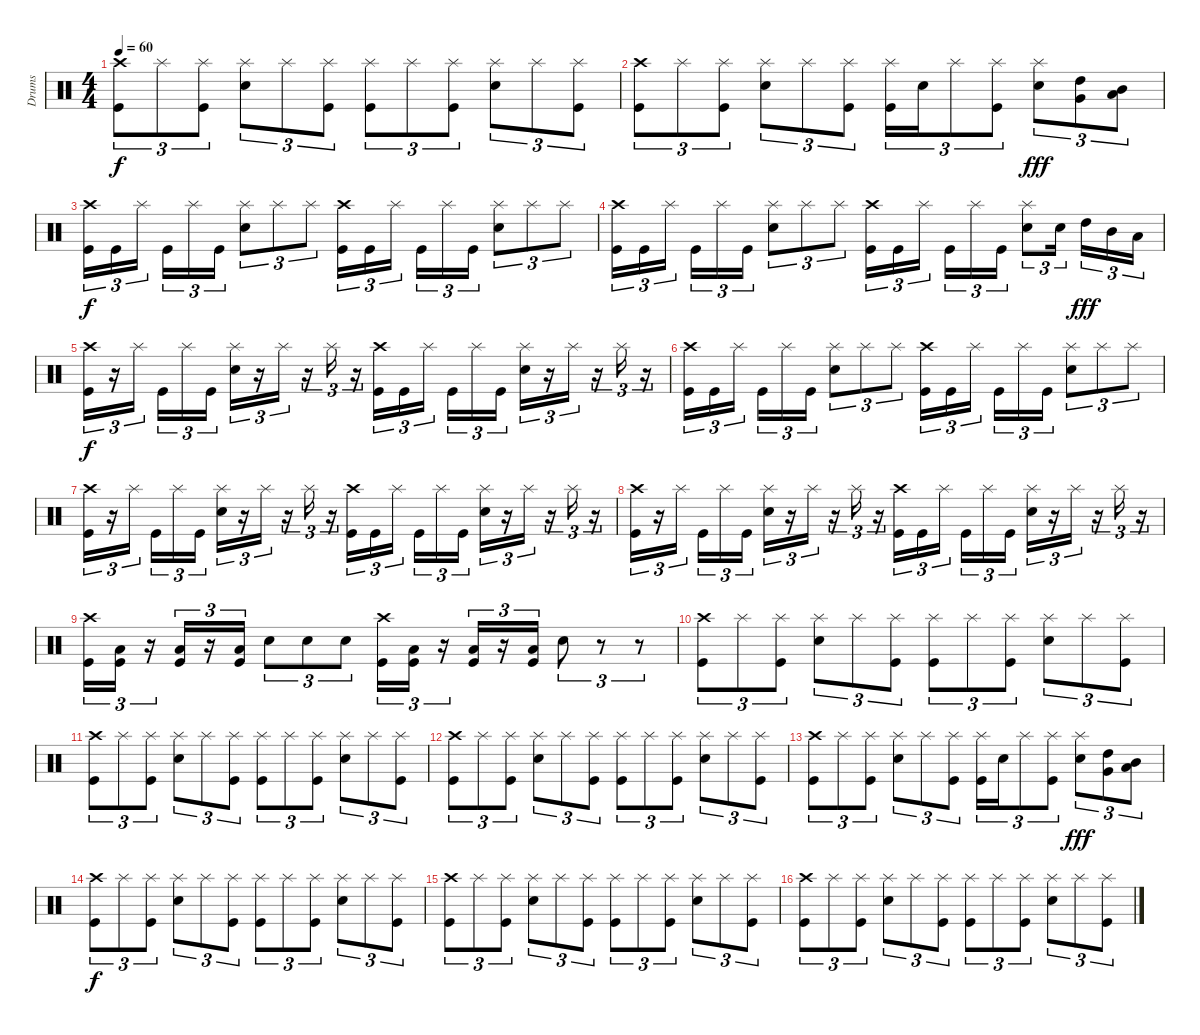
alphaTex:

\track ("Drums" "Drums") {instrument percussion}
\staff {score}
\articulation defaults
\ts (4 4)
\tempo 60
\clef neutral
\ks c
("Crash high (hit)" "Kick (hit)").8{tu (3 2) dy f} "Splash (hit)".8{tu (3 2)} ("Splash (hit)" "Kick (hit)").8{tu (3 2)} ("Splash (hit)" "Electric Snare (hit)").8{tu (3 2)} "Splash (hit)".8{tu (3 2)} ("Splash (hit)" "Kick (hit)").8{tu (3 2)} ("Splash (hit)" "Kick (hit)").8{tu (3 2)} "Splash (hit)".8{tu (3 2)} ("Splash (hit)" "Kick (hit)").8{tu (3 2)} ("Splash (hit)" "Electric Snare (hit)").8{tu (3 2)} "Splash (hit)".8{tu (3 2)} ("Splash (hit)" "Kick (hit)").8{tu (3 2)} |
("Crash high (hit)" "Kick (hit)").8{tu (3 2)} "Splash (hit)".8{tu (3 2)} ("Splash (hit)" "Kick (hit)").8{tu (3 2)} ("Splash (hit)" "Electric Snare (hit)").8{tu (3 2)} "Splash (hit)".8{tu (3 2)} ("Splash (hit)" "Kick (hit)").8{tu (3 2)} ("Splash (hit)" "Kick (hit)").16{tu (3 2)} "Electric Snare (hit)".16{tu (3 2)} "Splash (hit)".8{tu (3 2)} ("Splash (hit)" "Kick (hit)").8{tu (3 2)} ("Splash (hit)" "Electric Snare (hit)").8{tu (3 2) dy fff} ("High Tom (hit)" "Very Low Tom (hit)").8{tu (3 2)} ("Mid Tom (hit)" "Low Floor Tom (hit)").8{tu (3 2)} |
("Crash high (hit)" "Kick (hit)").16{tu (3 2) dy f} "Kick (hit)".16{tu (3 2)} "Splash (hit)".16{tu (3 2) beam splitsecondary} "Kick (hit)".16{tu (3 2)} "Splash (hit)".16{tu (3 2)} "Kick (hit)".16{tu (3 2)} ("Splash (hit)" "Electric Snare (hit)").8{tu (3 2)} "Splash (hit)".8{tu (3 2)} "Splash (hit)".8{tu (3 2)} ("Crash high (hit)" "Kick (hit)").16{tu (3 2)} "Kick (hit)".16{tu (3 2)} "Splash (hit)".16{tu (3 2) beam splitsecondary} "Kick (hit)".16{tu (3 2)} "Splash (hit)".16{tu (3 2)} "Kick (hit)".16{tu (3 2)} ("Splash (hit)" "Electric Snare (hit)").8{tu (3 2)} "Splash (hit)".8{tu (3 2)} "Splash (hit)".8{tu (3 2)} |
("Crash high (hit)" "Kick (hit)").16{tu (3 2)} "Kick (hit)".16{tu (3 2)} "Splash (hit)".16{tu (3 2) beam splitsecondary} "Kick (hit)".16{tu (3 2)} "Splash (hit)".16{tu (3 2)} "Kick (hit)".16{tu (3 2)} ("Splash (hit)" "Electric Snare (hit)").8{tu (3 2)} "Splash (hit)".8{tu (3 2)} "Splash (hit)".8{tu (3 2)} ("Crash high (hit)" "Kick (hit)").16{tu (3 2)} "Kick (hit)".16{tu (3 2)} "Splash (hit)".16{tu (3 2) beam splitsecondary} "Kick (hit)".16{tu (3 2)} "Splash (hit)".16{tu (3 2)} "Kick (hit)".16{tu (3 2)} ("Splash (hit)" "Electric Snare (hit)").8{tu (3 2)} "Electric Snare (hit)".16{tu (3 2) beam splitsecondary} "High Tom (hit)".16{tu (3 2) dy fff} "Mid Tom (hit)".16{tu (3 2)} "Low Floor Tom (hit)".16{tu (3 2)} |
("Crash high (hit)" "Kick (hit)").16{tu (3 2) dy f} r.16{tu (3 2)} "Splash (hit)".16{tu (3 2) beam splitsecondary} "Kick (hit)".16{tu (3 2)} "Splash (hit)".16{tu (3 2)} "Kick (hit)".16{tu (3 2)} ("Splash (hit)" "Electric Snare (hit)").16{tu (3 2)} r.16{tu (3 2)} "Splash (hit)".16{tu (3 2)} r.16{tu (3 2)} "Splash (hit)".16{tu (3 2)} r.16{tu (3 2)} ("Crash high (hit)" "Kick (hit)").16{tu (3 2)} "Kick (hit)".16{tu (3 2)} "Splash (hit)".16{tu (3 2) beam splitsecondary} "Kick (hit)".16{tu (3 2)} "Splash (hit)".16{tu (3 2)} "Kick (hit)".16{tu (3 2)} ("Splash (hit)" "Electric Snare (hit)").16{tu (3 2)} r.16{tu (3 2)} "Splash (hit)".16{tu (3 2)} r.16{tu (3 2)} "Splash (hit)".16{tu (3 2)} r.16{tu (3 2)} |
("Crash high (hit)" "Kick (hit)").16{tu (3 2)} "Kick (hit)".16{tu (3 2)} "Splash (hit)".16{tu (3 2) beam splitsecondary} "Kick (hit)".16{tu (3 2)} "Splash (hit)".16{tu (3 2)} "Kick (hit)".16{tu (3 2)} ("Splash (hit)" "Electric Snare (hit)").8{tu (3 2)} "Splash (hit)".8{tu (3 2)} "Splash (hit)".8{tu (3 2)} ("Crash high (hit)" "Kick (hit)").16{tu (3 2)} "Kick (hit)".16{tu (3 2)} "Splash (hit)".16{tu (3 2) beam splitsecondary} "Kick (hit)".16{tu (3 2)} "Splash (hit)".16{tu (3 2)} "Kick (hit)".16{tu (3 2)} ("Splash (hit)" "Electric Snare (hit)").8{tu (3 2)} "Splash (hit)".8{tu (3 2)} "Splash (hit)".8{tu (3 2)} |
("Crash high (hit)" "Kick (hit)").16{tu (3 2)} r.16{tu (3 2)} "Splash (hit)".16{tu (3 2) beam splitsecondary} "Kick (hit)".16{tu (3 2)} "Splash (hit)".16{tu (3 2)} "Kick (hit)".16{tu (3 2)} ("Splash (hit)" "Electric Snare (hit)").16{tu (3 2)} r.16{tu (3 2)} "Splash (hit)".16{tu (3 2)} r.16{tu (3 2)} "Splash (hit)".16{tu (3 2)} r.16{tu (3 2)} ("Crash high (hit)" "Kick (hit)").16{tu (3 2)} "Kick (hit)".16{tu (3 2)} "Splash (hit)".16{tu (3 2) beam splitsecondary} "Kick (hit)".16{tu (3 2)} "Splash (hit)".16{tu (3 2)} "Kick (hit)".16{tu (3 2)} ("Splash (hit)" "Electric Snare (hit)").16{tu (3 2)} r.16{tu (3 2)} "Splash (hit)".16{tu (3 2)} r.16{tu (3 2)} "Splash (hit)".16{tu (3 2)} r.16{tu (3 2)} |
("Crash high (hit)" "Kick (hit)").16{tu (3 2)} r.16{tu (3 2)} "Splash (hit)".16{tu (3 2) beam splitsecondary} "Kick (hit)".16{tu (3 2)} "Splash (hit)".16{tu (3 2)} "Kick (hit)".16{tu (3 2)} ("Splash (hit)" "Electric Snare (hit)").16{tu (3 2)} r.16{tu (3 2)} "Splash (hit)".16{tu (3 2)} r.16{tu (3 2)} "Splash (hit)".16{tu (3 2)} r.16{tu (3 2)} ("Crash high (hit)" "Kick (hit)").16{tu (3 2)} "Kick (hit)".16{tu (3 2)} "Splash (hit)".16{tu (3 2) beam splitsecondary} "Kick (hit)".16{tu (3 2)} "Splash (hit)".16{tu (3 2)} "Kick (hit)".16{tu (3 2)} ("Splash (hit)" "Electric Snare (hit)").16{tu (3 2)} r.16{tu (3 2)} "Splash (hit)".16{tu (3 2)} r.16{tu (3 2)} "Splash (hit)".16{tu (3 2)} r.16{tu (3 2)} |
("Crash high (hit)" "Kick (hit)").16{tu (3 2)} ("Low Floor Tom (hit)" "Kick (hit)").16{tu (3 2)} r.16{tu (3 2)} ("Low Floor Tom (hit)" "Kick (hit)").16{tu (3 2)} r.16{tu (3 2)} ("Low Floor Tom (hit)" "Kick (hit)").16{tu (3 2)} "Electric Snare (hit)".8{tu (3 2)} "Electric Snare (hit)".8{tu (3 2)} "Electric Snare (hit)".8{tu (3 2)} ("Crash high (hit)" "Kick (hit)").16{tu (3 2)} ("Low Floor Tom (hit)" "Kick (hit)").16{tu (3 2)} r.16{tu (3 2)} ("Low Floor Tom (hit)" "Kick (hit)").16{tu (3 2)} r.16{tu (3 2)} ("Low Floor Tom (hit)" "Kick (hit)").16{tu (3 2)} "Electric Snare (hit)".8{tu (3 2)} r.8{tu (3 2)} r.8{tu (3 2)} |
("Crash high (hit)" "Kick (hit)").8{tu (3 2)} "Splash (hit)".8{tu (3 2)} ("Splash (hit)" "Kick (hit)").8{tu (3 2)} ("Splash (hit)" "Electric Snare (hit)").8{tu (3 2)} "Splash (hit)".8{tu (3 2)} ("Splash (hit)" "Kick (hit)").8{tu (3 2)} ("Splash (hit)" "Kick (hit)").8{tu (3 2)} "Splash (hit)".8{tu (3 2)} ("Splash (hit)" "Kick (hit)").8{tu (3 2)} ("Splash (hit)" "Electric Snare (hit)").8{tu (3 2)} "Splash (hit)".8{tu (3 2)} ("Splash (hit)" "Kick (hit)").8{tu (3 2)} |
("Crash high (hit)" "Kick (hit)").8{tu (3 2)} "Splash (hit)".8{tu (3 2)} ("Splash (hit)" "Kick (hit)").8{tu (3 2)} ("Splash (hit)" "Electric Snare (hit)").8{tu (3 2)} "Splash (hit)".8{tu (3 2)} ("Splash (hit)" "Kick (hit)").8{tu (3 2)} ("Splash (hit)" "Kick (hit)").8{tu (3 2)} "Splash (hit)".8{tu (3 2)} ("Splash (hit)" "Kick (hit)").8{tu (3 2)} ("Splash (hit)" "Electric Snare (hit)").8{tu (3 2)} "Splash (hit)".8{tu (3 2)} ("Splash (hit)" "Kick (hit)").8{tu (3 2)} |
("Crash high (hit)" "Kick (hit)").8{tu (3 2)} "Splash (hit)".8{tu (3 2)} ("Splash (hit)" "Kick (hit)").8{tu (3 2)} ("Splash (hit)" "Electric Snare (hit)").8{tu (3 2)} "Splash (hit)".8{tu (3 2)} ("Splash (hit)" "Kick (hit)").8{tu (3 2)} ("Splash (hit)" "Kick (hit)").8{tu (3 2)} "Splash (hit)".8{tu (3 2)} ("Splash (hit)" "Kick (hit)").8{tu (3 2)} ("Splash (hit)" "Electric Snare (hit)").8{tu (3 2)} "Splash (hit)".8{tu (3 2)} ("Splash (hit)" "Kick (hit)").8{tu (3 2)} |
("Crash high (hit)" "Kick (hit)").8{tu (3 2)} "Splash (hit)".8{tu (3 2)} ("Splash (hit)" "Kick (hit)").8{tu (3 2)} ("Splash (hit)" "Electric Snare (hit)").8{tu (3 2)} "Splash (hit)".8{tu (3 2)} ("Splash (hit)" "Kick (hit)").8{tu (3 2)} ("Splash (hit)" "Kick (hit)").16{tu (3 2)} "Electric Snare (hit)".16{tu (3 2)} "Splash (hit)".8{tu (3 2)} ("Splash (hit)" "Kick (hit)").8{tu (3 2)} ("Splash (hit)" "Electric Snare (hit)").8{tu (3 2) dy fff} ("High Tom (hit)" "Very Low Tom (hit)").8{tu (3 2)} ("Mid Tom (hit)" "Low Floor Tom (hit)").8{tu (3 2)} |
("Crash high (hit)" "Kick (hit)").8{tu (3 2) dy f} "Splash (hit)".8{tu (3 2)} ("Splash (hit)" "Kick (hit)").8{tu (3 2)} ("Splash (hit)" "Electric Snare (hit)").8{tu (3 2)} "Splash (hit)".8{tu (3 2)} ("Splash (hit)" "Kick (hit)").8{tu (3 2)} ("Splash (hit)" "Kick (hit)").8{tu (3 2)} "Splash (hit)".8{tu (3 2)} ("Splash (hit)" "Kick (hit)").8{tu (3 2)} ("Splash (hit)" "Electric Snare (hit)").8{tu (3 2)} "Splash (hit)".8{tu (3 2)} ("Splash (hit)" "Kick (hit)").8{tu (3 2)} |
("Crash high (hit)" "Kick (hit)").8{tu (3 2)} "Splash (hit)".8{tu (3 2)} ("Splash (hit)" "Kick (hit)").8{tu (3 2)} ("Splash (hit)" "Electric Snare (hit)").8{tu (3 2)} "Splash (hit)".8{tu (3 2)} ("Splash (hit)" "Kick (hit)").8{tu (3 2)} ("Splash (hit)" "Kick (hit)").8{tu (3 2)} "Splash (hit)".8{tu (3 2)} ("Splash (hit)" "Kick (hit)").8{tu (3 2)} ("Splash (hit)" "Electric Snare (hit)").8{tu (3 2)} "Splash (hit)".8{tu (3 2)} ("Splash (hit)" "Kick (hit)").8{tu (3 2)} |
("Crash high (hit)" "Kick (hit)").8{tu (3 2)} "Splash (hit)".8{tu (3 2)} ("Splash (hit)" "Kick (hit)").8{tu (3 2)} ("Splash (hit)" "Electric Snare (hit)").8{tu (3 2)} "Splash (hit)".8{tu (3 2)} ("Splash (hit)" "Kick (hit)").8{tu (3 2)} ("Splash (hit)" "Kick (hit)").8{tu (3 2)} "Splash (hit)".8{tu (3 2)} ("Splash (hit)" "Kick (hit)").8{tu (3 2)} ("Splash (hit)" "Electric Snare (hit)").8{tu (3 2)} "Splash (hit)".8{tu (3 2)} ("Splash (hit)" "Kick (hit)").8{tu (3 2)}
